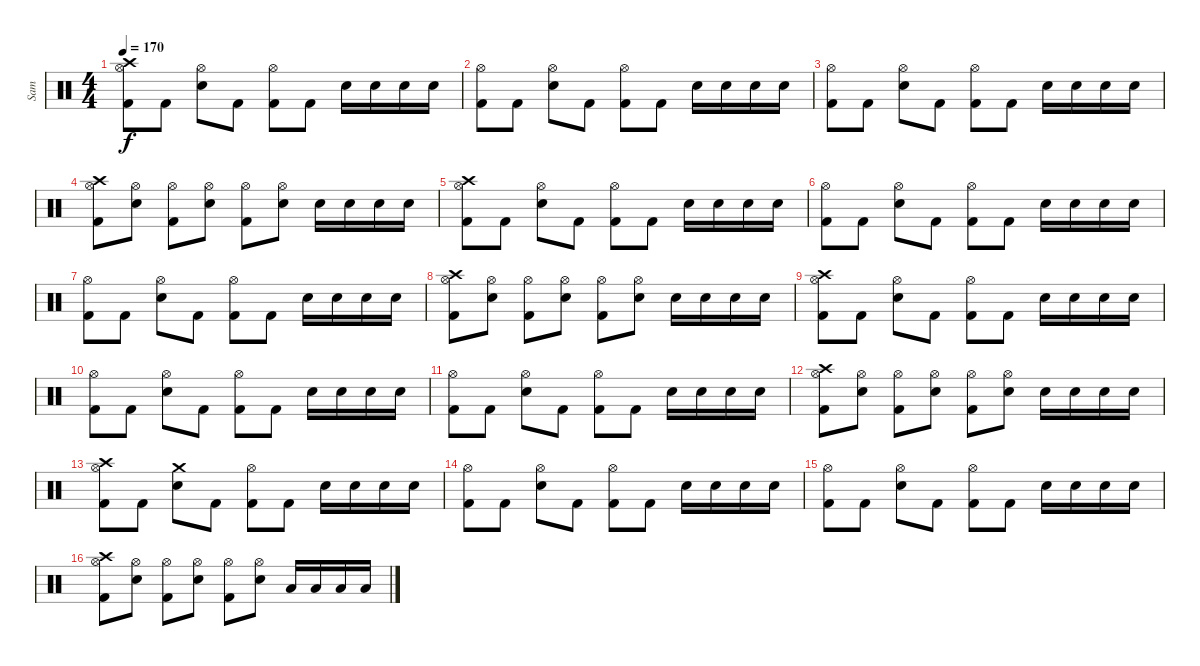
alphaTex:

\track ("Sam" "Sam") {instrument percussion}
\staff {score}
\articulation defaults
\ts (4 4)
\tempo 170
\clef neutral
\ks c
("Hi-Hat (open)" "Crash high (hit)" "Kick (hit) 2").8{dy f} "Kick (hit) 2".8 ("Hi-Hat (open)" "Electric Snare (hit)").8 "Kick (hit) 2".8 ("Hi-Hat (open)" "Kick (hit) 2").8 "Kick (hit) 2".8 "Electric Snare (hit)".16 "Electric Snare (hit)".16 "Electric Snare (hit)".16 "Electric Snare (hit)".16 |
("Hi-Hat (open)" "Kick (hit) 2").8 "Kick (hit) 2".8 ("Hi-Hat (open)" "Electric Snare (hit)").8 "Kick (hit) 2".8 ("Hi-Hat (open)" "Kick (hit) 2").8 "Kick (hit) 2".8 "Electric Snare (hit)".16 "Electric Snare (hit)".16 "Electric Snare (hit)".16 "Electric Snare (hit)".16 |
("Hi-Hat (open)" "Kick (hit) 2").8 "Kick (hit) 2".8 ("Hi-Hat (open)" "Electric Snare (hit)").8 "Kick (hit) 2".8 ("Hi-Hat (open)" "Kick (hit) 2").8 "Kick (hit) 2".8 "Electric Snare (hit)".16 "Electric Snare (hit)".16 "Electric Snare (hit)".16 "Electric Snare (hit)".16 |
("Hi-Hat (open)" "Crash high (hit)" "Kick (hit) 2").8 ("Hi-Hat (open)" "Electric Snare (hit)").8 ("Hi-Hat (open)" "Kick (hit) 2").8 ("Hi-Hat (open)" "Electric Snare (hit)").8 ("Hi-Hat (open)" "Kick (hit) 2").8 ("Hi-Hat (open)" "Electric Snare (hit)").8 "Electric Snare (hit)".16 "Electric Snare (hit)".16 "Electric Snare (hit)".16 "Electric Snare (hit)".16 |
("Hi-Hat (open)" "Crash high (hit)" "Kick (hit) 2").8 "Kick (hit) 2".8 ("Hi-Hat (open)" "Electric Snare (hit)").8 "Kick (hit) 2".8 ("Hi-Hat (open)" "Kick (hit) 2").8 "Kick (hit) 2".8 "Electric Snare (hit)".16 "Electric Snare (hit)".16 "Electric Snare (hit)".16 "Electric Snare (hit)".16 |
("Hi-Hat (open)" "Kick (hit) 2").8 "Kick (hit) 2".8 ("Hi-Hat (open)" "Electric Snare (hit)").8 "Kick (hit) 2".8 ("Hi-Hat (open)" "Kick (hit) 2").8 "Kick (hit) 2".8 "Electric Snare (hit)".16 "Electric Snare (hit)".16 "Electric Snare (hit)".16 "Electric Snare (hit)".16 |
("Hi-Hat (open)" "Kick (hit) 2").8 "Kick (hit) 2".8 ("Hi-Hat (open)" "Electric Snare (hit)").8 "Kick (hit) 2".8 ("Hi-Hat (open)" "Kick (hit) 2").8 "Kick (hit) 2".8 "Electric Snare (hit)".16 "Electric Snare (hit)".16 "Electric Snare (hit)".16 "Electric Snare (hit)".16 |
("Hi-Hat (open)" "Crash high (hit)" "Kick (hit) 2").8 ("Hi-Hat (open)" "Electric Snare (hit)").8 ("Hi-Hat (open)" "Kick (hit) 2").8 ("Hi-Hat (open)" "Electric Snare (hit)").8 ("Hi-Hat (open)" "Kick (hit) 2").8 ("Hi-Hat (open)" "Electric Snare (hit)").8 "Electric Snare (hit)".16 "Electric Snare (hit)".16 "Electric Snare (hit)".16 "Electric Snare (hit)".16 |
("Hi-Hat (open)" "Crash high (hit)" "Kick (hit) 2").8 "Kick (hit) 2".8 ("Hi-Hat (open)" "Electric Snare (hit)").8 "Kick (hit) 2".8 ("Hi-Hat (open)" "Kick (hit) 2").8 "Kick (hit) 2".8 "Electric Snare (hit)".16 "Electric Snare (hit)".16 "Electric Snare (hit)".16 "Electric Snare (hit)".16 |
("Hi-Hat (open)" "Kick (hit) 2").8 "Kick (hit) 2".8 ("Hi-Hat (open)" "Electric Snare (hit)").8 "Kick (hit) 2".8 ("Hi-Hat (open)" "Kick (hit) 2").8 "Kick (hit) 2".8 "Electric Snare (hit)".16 "Electric Snare (hit)".16 "Electric Snare (hit)".16 "Electric Snare (hit)".16 |
("Hi-Hat (open)" "Kick (hit) 2").8 "Kick (hit) 2".8 ("Hi-Hat (open)" "Electric Snare (hit)").8 "Kick (hit) 2".8 ("Hi-Hat (open)" "Kick (hit) 2").8 "Kick (hit) 2".8 "Electric Snare (hit)".16 "Electric Snare (hit)".16 "Electric Snare (hit)".16 "Electric Snare (hit)".16 |
("Hi-Hat (open)" "Crash high (hit)" "Kick (hit) 2").8 ("Hi-Hat (open)" "Electric Snare (hit)").8 ("Hi-Hat (open)" "Kick (hit) 2").8 ("Hi-Hat (open)" "Electric Snare (hit)").8 ("Hi-Hat (open)" "Kick (hit) 2").8 ("Hi-Hat (open)" "Electric Snare (hit)").8 "Electric Snare (hit)".16 "Electric Snare (hit)".16 "Electric Snare (hit)".16 "Electric Snare (hit)".16 |
("Hi-Hat (open)" "Crash high (hit)" "Kick (hit) 2").8 "Kick (hit) 2".8 ("Crash medium (hit)" "Electric Snare (hit)").8 "Kick (hit) 2".8 ("Hi-Hat (open)" "Kick (hit) 2").8 "Kick (hit) 2".8 "Electric Snare (hit)".16 "Electric Snare (hit)".16 "Electric Snare (hit)".16 "Electric Snare (hit)".16 |
("Hi-Hat (open)" "Kick (hit) 2").8 "Kick (hit) 2".8 ("Hi-Hat (open)" "Electric Snare (hit)").8 "Kick (hit) 2".8 ("Hi-Hat (open)" "Kick (hit) 2").8 "Kick (hit) 2".8 "Electric Snare (hit)".16 "Electric Snare (hit)".16 "Electric Snare (hit)".16 "Electric Snare (hit)".16 |
("Hi-Hat (open)" "Kick (hit) 2").8 "Kick (hit) 2".8 ("Hi-Hat (open)" "Electric Snare (hit)").8 "Kick (hit) 2".8 ("Hi-Hat (open)" "Kick (hit) 2").8 "Kick (hit) 2".8 "Electric Snare (hit)".16 "Electric Snare (hit)".16 "Electric Snare (hit)".16 "Electric Snare (hit)".16 |
("Hi-Hat (open)" "Crash high (hit)" "Kick (hit) 2").8 ("Hi-Hat (open)" "Electric Snare (hit)").8 ("Hi-Hat (open)" "Kick (hit) 2").8 ("Hi-Hat (open)" "Electric Snare (hit)").8 ("Hi-Hat (open)" "Kick (hit) 2").8 ("Hi-Hat (open)" "Electric Snare (hit)").8 "Low Tom (hit)".16 "Low Tom (hit)".16 "Low Floor Tom (hit)".16 "Low Floor Tom (hit)".16
